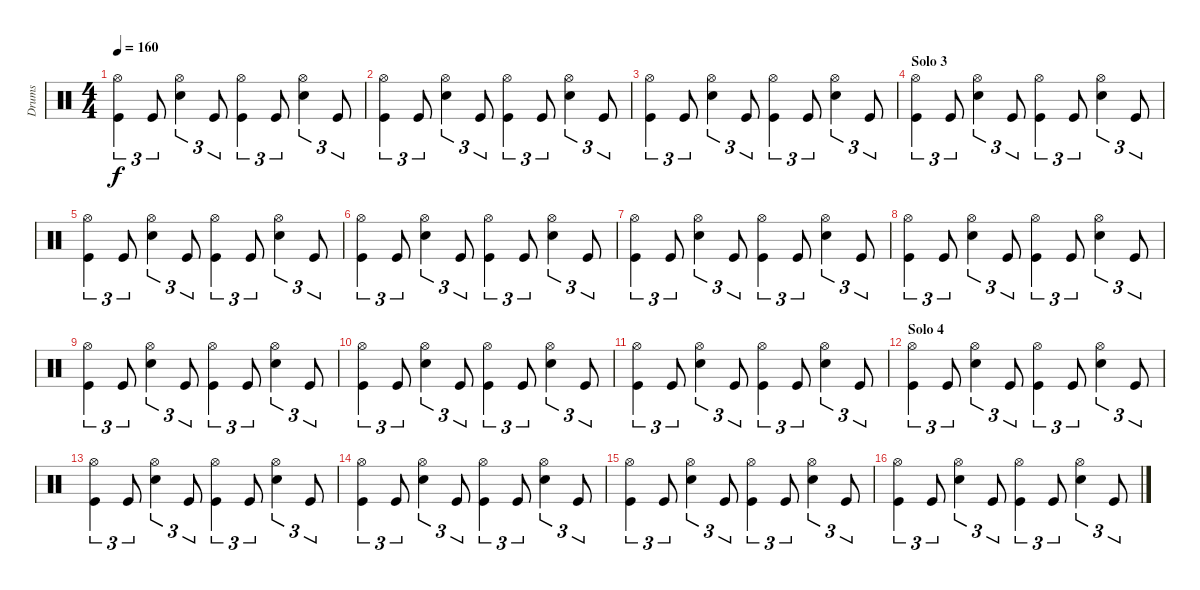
\track ("Drums" "Drums") {instrument percussion}
\staff {score}
\articulation defaults
\ts (4 4)
\tempo 160
\clef neutral
\ks c
("Hi-Hat (open)" "Kick (hit)").4{tu (3 2) dy f} "Kick (hit)".8{tu (3 2)} ("Hi-Hat (open)" "Electric Snare (hit)").4{tu (3 2)} "Kick (hit)".8{tu (3 2)} ("Hi-Hat (open)" "Kick (hit)").4{tu (3 2)} "Kick (hit)".8{tu (3 2)} ("Hi-Hat (open)" "Electric Snare (hit)").4{tu (3 2)} "Kick (hit)".8{tu (3 2)} |
("Hi-Hat (open)" "Kick (hit)").4{tu (3 2)} "Kick (hit)".8{tu (3 2)} ("Hi-Hat (open)" "Electric Snare (hit)").4{tu (3 2)} "Kick (hit)".8{tu (3 2)} ("Hi-Hat (open)" "Kick (hit)").4{tu (3 2)} "Kick (hit)".8{tu (3 2)} ("Hi-Hat (open)" "Electric Snare (hit)").4{tu (3 2)} "Kick (hit)".8{tu (3 2)} |
("Hi-Hat (open)" "Kick (hit)").4{tu (3 2)} "Kick (hit)".8{tu (3 2)} ("Hi-Hat (open)" "Electric Snare (hit)").4{tu (3 2)} "Kick (hit)".8{tu (3 2)} ("Hi-Hat (open)" "Kick (hit)").4{tu (3 2)} "Kick (hit)".8{tu (3 2)} ("Hi-Hat (open)" "Electric Snare (hit)").4{tu (3 2)} "Kick (hit)".8{tu (3 2)} |
\section ("" "Solo 3")
("Hi-Hat (open)" "Kick (hit)").4{tu (3 2)} "Kick (hit)".8{tu (3 2)} ("Hi-Hat (open)" "Electric Snare (hit)").4{tu (3 2)} "Kick (hit)".8{tu (3 2)} ("Hi-Hat (open)" "Kick (hit)").4{tu (3 2)} "Kick (hit)".8{tu (3 2)} ("Hi-Hat (open)" "Electric Snare (hit)").4{tu (3 2)} "Kick (hit)".8{tu (3 2)} |
("Hi-Hat (open)" "Kick (hit)").4{tu (3 2)} "Kick (hit)".8{tu (3 2)} ("Hi-Hat (open)" "Electric Snare (hit)").4{tu (3 2)} "Kick (hit)".8{tu (3 2)} ("Hi-Hat (open)" "Kick (hit)").4{tu (3 2)} "Kick (hit)".8{tu (3 2)} ("Hi-Hat (open)" "Electric Snare (hit)").4{tu (3 2)} "Kick (hit)".8{tu (3 2)} |
("Hi-Hat (open)" "Kick (hit)").4{tu (3 2)} "Kick (hit)".8{tu (3 2)} ("Hi-Hat (open)" "Electric Snare (hit)").4{tu (3 2)} "Kick (hit)".8{tu (3 2)} ("Hi-Hat (open)" "Kick (hit)").4{tu (3 2)} "Kick (hit)".8{tu (3 2)} ("Hi-Hat (open)" "Electric Snare (hit)").4{tu (3 2)} "Kick (hit)".8{tu (3 2)} |
("Hi-Hat (open)" "Kick (hit)").4{tu (3 2)} "Kick (hit)".8{tu (3 2)} ("Hi-Hat (open)" "Electric Snare (hit)").4{tu (3 2)} "Kick (hit)".8{tu (3 2)} ("Hi-Hat (open)" "Kick (hit)").4{tu (3 2)} "Kick (hit)".8{tu (3 2)} ("Hi-Hat (open)" "Electric Snare (hit)").4{tu (3 2)} "Kick (hit)".8{tu (3 2)} |
("Hi-Hat (open)" "Kick (hit)").4{tu (3 2)} "Kick (hit)".8{tu (3 2)} ("Hi-Hat (open)" "Electric Snare (hit)").4{tu (3 2)} "Kick (hit)".8{tu (3 2)} ("Hi-Hat (open)" "Kick (hit)").4{tu (3 2)} "Kick (hit)".8{tu (3 2)} ("Hi-Hat (open)" "Electric Snare (hit)").4{tu (3 2)} "Kick (hit)".8{tu (3 2)} |
("Hi-Hat (open)" "Kick (hit)").4{tu (3 2)} "Kick (hit)".8{tu (3 2)} ("Hi-Hat (open)" "Electric Snare (hit)").4{tu (3 2)} "Kick (hit)".8{tu (3 2)} ("Hi-Hat (open)" "Kick (hit)").4{tu (3 2)} "Kick (hit)".8{tu (3 2)} ("Hi-Hat (open)" "Electric Snare (hit)").4{tu (3 2)} "Kick (hit)".8{tu (3 2)} |
("Hi-Hat (open)" "Kick (hit)").4{tu (3 2)} "Kick (hit)".8{tu (3 2)} ("Hi-Hat (open)" "Electric Snare (hit)").4{tu (3 2)} "Kick (hit)".8{tu (3 2)} ("Hi-Hat (open)" "Kick (hit)").4{tu (3 2)} "Kick (hit)".8{tu (3 2)} ("Hi-Hat (open)" "Electric Snare (hit)").4{tu (3 2)} "Kick (hit)".8{tu (3 2)} |
("Hi-Hat (open)" "Kick (hit)").4{tu (3 2)} "Kick (hit)".8{tu (3 2)} ("Hi-Hat (open)" "Electric Snare (hit)").4{tu (3 2)} "Kick (hit)".8{tu (3 2)} ("Hi-Hat (open)" "Kick (hit)").4{tu (3 2)} "Kick (hit)".8{tu (3 2)} ("Hi-Hat (open)" "Electric Snare (hit)").4{tu (3 2)} "Kick (hit)".8{tu (3 2)} |
\section ("" "Solo 4")
("Hi-Hat (open)" "Kick (hit)").4{tu (3 2)} "Kick (hit)".8{tu (3 2)} ("Hi-Hat (open)" "Electric Snare (hit)").4{tu (3 2)} "Kick (hit)".8{tu (3 2)} ("Hi-Hat (open)" "Kick (hit)").4{tu (3 2)} "Kick (hit)".8{tu (3 2)} ("Hi-Hat (open)" "Electric Snare (hit)").4{tu (3 2)} "Kick (hit)".8{tu (3 2)} |
("Hi-Hat (open)" "Kick (hit)").4{tu (3 2)} "Kick (hit)".8{tu (3 2)} ("Hi-Hat (open)" "Electric Snare (hit)").4{tu (3 2)} "Kick (hit)".8{tu (3 2)} ("Hi-Hat (open)" "Kick (hit)").4{tu (3 2)} "Kick (hit)".8{tu (3 2)} ("Hi-Hat (open)" "Electric Snare (hit)").4{tu (3 2)} "Kick (hit)".8{tu (3 2)} |
("Hi-Hat (open)" "Kick (hit)").4{tu (3 2)} "Kick (hit)".8{tu (3 2)} ("Hi-Hat (open)" "Electric Snare (hit)").4{tu (3 2)} "Kick (hit)".8{tu (3 2)} ("Hi-Hat (open)" "Kick (hit)").4{tu (3 2)} "Kick (hit)".8{tu (3 2)} ("Hi-Hat (open)" "Electric Snare (hit)").4{tu (3 2)} "Kick (hit)".8{tu (3 2)} |
("Hi-Hat (open)" "Kick (hit)").4{tu (3 2)} "Kick (hit)".8{tu (3 2)} ("Hi-Hat (open)" "Electric Snare (hit)").4{tu (3 2)} "Kick (hit)".8{tu (3 2)} ("Hi-Hat (open)" "Kick (hit)").4{tu (3 2)} "Kick (hit)".8{tu (3 2)} ("Hi-Hat (open)" "Electric Snare (hit)").4{tu (3 2)} "Kick (hit)".8{tu (3 2)} |
("Hi-Hat (open)" "Kick (hit)").4{tu (3 2)} "Kick (hit)".8{tu (3 2)} ("Hi-Hat (open)" "Electric Snare (hit)").4{tu (3 2)} "Kick (hit)".8{tu (3 2)} ("Hi-Hat (open)" "Kick (hit)").4{tu (3 2)} "Kick (hit)".8{tu (3 2)} ("Hi-Hat (open)" "Electric Snare (hit)").4{tu (3 2)} "Kick (hit)".8{tu (3 2)}
